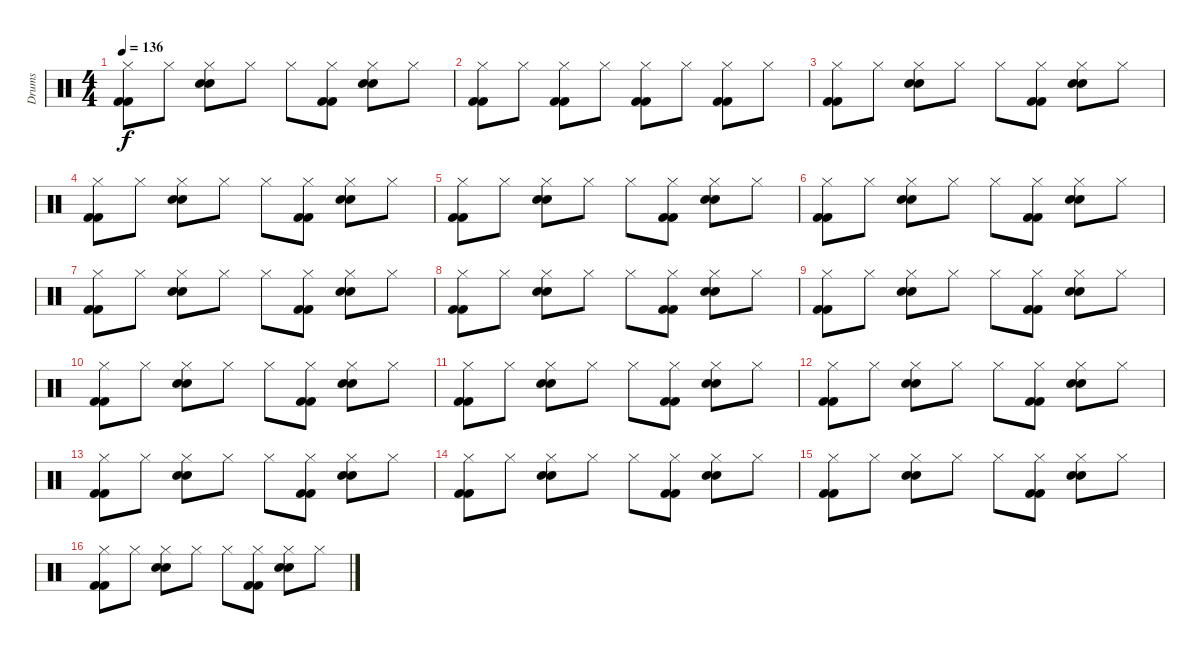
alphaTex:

\track ("Drums" "Drums") {instrument percussion}
\staff {score}
\articulation defaults
\ts (4 4)
\tempo 136
\clef neutral
\ks c
("Kick (hit) 2" "Kick (hit) 2" "Hi-Hat (closed)").8{dy f} "Hi-Hat (closed)".8 ("Electric Snare (hit)" "Electric Snare (hit)" "Hi-Hat (closed)").8 "Hi-Hat (closed)".8 "Hi-Hat (closed)".8 ("Kick (hit) 2" "Kick (hit) 2" "Hi-Hat (closed)").8 ("Electric Snare (hit)" "Electric Snare (hit)" "Hi-Hat (closed)").8 "Hi-Hat (closed)".8 |
("Kick (hit) 2" "Kick (hit) 2" "Hi-Hat (closed)").8 "Hi-Hat (closed)".8 ("Kick (hit) 2" "Kick (hit) 2" "Hi-Hat (closed)").8 "Hi-Hat (closed)".8 ("Kick (hit) 2" "Kick (hit) 2" "Hi-Hat (closed)").8 "Hi-Hat (closed)".8 ("Kick (hit) 2" "Kick (hit) 2" "Hi-Hat (closed)").8 "Hi-Hat (closed)".8 |
("Kick (hit) 2" "Kick (hit) 2" "Hi-Hat (closed)").8 "Hi-Hat (closed)".8 ("Electric Snare (hit)" "Electric Snare (hit)" "Hi-Hat (closed)").8 "Hi-Hat (closed)".8 "Hi-Hat (closed)".8 ("Kick (hit) 2" "Kick (hit) 2" "Hi-Hat (closed)").8 ("Electric Snare (hit)" "Electric Snare (hit)" "Hi-Hat (closed)").8 "Hi-Hat (closed)".8 |
("Kick (hit) 2" "Kick (hit) 2" "Hi-Hat (closed)").8 "Hi-Hat (closed)".8 ("Electric Snare (hit)" "Electric Snare (hit)" "Hi-Hat (closed)").8 "Hi-Hat (closed)".8 "Hi-Hat (closed)".8 ("Kick (hit) 2" "Kick (hit) 2" "Hi-Hat (closed)").8 ("Electric Snare (hit)" "Electric Snare (hit)" "Hi-Hat (closed)").8 "Hi-Hat (closed)".8 |
("Kick (hit) 2" "Kick (hit) 2" "Hi-Hat (closed)").8 "Hi-Hat (closed)".8 ("Electric Snare (hit)" "Electric Snare (hit)" "Hi-Hat (closed)").8 "Hi-Hat (closed)".8 "Hi-Hat (closed)".8 ("Kick (hit) 2" "Kick (hit) 2" "Hi-Hat (closed)").8 ("Electric Snare (hit)" "Electric Snare (hit)" "Hi-Hat (closed)").8 "Hi-Hat (closed)".8 |
("Kick (hit) 2" "Kick (hit) 2" "Hi-Hat (closed)").8 "Hi-Hat (closed)".8 ("Electric Snare (hit)" "Electric Snare (hit)" "Hi-Hat (closed)").8 "Hi-Hat (closed)".8 "Hi-Hat (closed)".8 ("Kick (hit) 2" "Kick (hit) 2" "Hi-Hat (closed)").8 ("Electric Snare (hit)" "Electric Snare (hit)" "Hi-Hat (closed)").8 "Hi-Hat (closed)".8 |
("Kick (hit) 2" "Kick (hit) 2" "Hi-Hat (closed)").8 "Hi-Hat (closed)".8 ("Electric Snare (hit)" "Electric Snare (hit)" "Hi-Hat (closed)").8 "Hi-Hat (closed)".8 "Hi-Hat (closed)".8 ("Kick (hit) 2" "Kick (hit) 2" "Hi-Hat (closed)").8 ("Electric Snare (hit)" "Electric Snare (hit)" "Hi-Hat (closed)").8 "Hi-Hat (closed)".8 |
("Kick (hit) 2" "Kick (hit) 2" "Hi-Hat (closed)").8 "Hi-Hat (closed)".8 ("Electric Snare (hit)" "Electric Snare (hit)" "Hi-Hat (closed)").8 "Hi-Hat (closed)".8 "Hi-Hat (closed)".8 ("Kick (hit) 2" "Kick (hit) 2" "Hi-Hat (closed)").8 ("Electric Snare (hit)" "Electric Snare (hit)" "Hi-Hat (closed)").8 "Hi-Hat (closed)".8 |
("Kick (hit) 2" "Kick (hit) 2" "Hi-Hat (closed)").8 "Hi-Hat (closed)".8 ("Electric Snare (hit)" "Electric Snare (hit)" "Hi-Hat (closed)").8 "Hi-Hat (closed)".8 "Hi-Hat (closed)".8 ("Kick (hit) 2" "Kick (hit) 2" "Hi-Hat (closed)").8 ("Electric Snare (hit)" "Electric Snare (hit)" "Hi-Hat (closed)").8 "Hi-Hat (closed)".8 |
("Kick (hit) 2" "Kick (hit) 2" "Hi-Hat (closed)").8 "Hi-Hat (closed)".8 ("Electric Snare (hit)" "Electric Snare (hit)" "Hi-Hat (closed)").8 "Hi-Hat (closed)".8 "Hi-Hat (closed)".8 ("Kick (hit) 2" "Kick (hit) 2" "Hi-Hat (closed)").8 ("Electric Snare (hit)" "Electric Snare (hit)" "Hi-Hat (closed)").8 "Hi-Hat (closed)".8 |
("Kick (hit) 2" "Kick (hit) 2" "Hi-Hat (closed)").8 "Hi-Hat (closed)".8 ("Electric Snare (hit)" "Electric Snare (hit)" "Hi-Hat (closed)").8 "Hi-Hat (closed)".8 "Hi-Hat (closed)".8 ("Kick (hit) 2" "Kick (hit) 2" "Hi-Hat (closed)").8 ("Electric Snare (hit)" "Electric Snare (hit)" "Hi-Hat (closed)").8 "Hi-Hat (closed)".8 |
("Kick (hit) 2" "Kick (hit) 2" "Hi-Hat (closed)").8 "Hi-Hat (closed)".8 ("Electric Snare (hit)" "Electric Snare (hit)" "Hi-Hat (closed)").8 "Hi-Hat (closed)".8 "Hi-Hat (closed)".8 ("Kick (hit) 2" "Kick (hit) 2" "Hi-Hat (closed)").8 ("Electric Snare (hit)" "Electric Snare (hit)" "Hi-Hat (closed)").8 "Hi-Hat (closed)".8 |
("Kick (hit) 2" "Kick (hit) 2" "Hi-Hat (closed)").8 "Hi-Hat (closed)".8 ("Electric Snare (hit)" "Electric Snare (hit)" "Hi-Hat (closed)").8 "Hi-Hat (closed)".8 "Hi-Hat (closed)".8 ("Kick (hit) 2" "Kick (hit) 2" "Hi-Hat (closed)").8 ("Electric Snare (hit)" "Electric Snare (hit)" "Hi-Hat (closed)").8 "Hi-Hat (closed)".8 |
("Kick (hit) 2" "Kick (hit) 2" "Hi-Hat (closed)").8 "Hi-Hat (closed)".8 ("Electric Snare (hit)" "Electric Snare (hit)" "Hi-Hat (closed)").8 "Hi-Hat (closed)".8 "Hi-Hat (closed)".8 ("Kick (hit) 2" "Kick (hit) 2" "Hi-Hat (closed)").8 ("Electric Snare (hit)" "Electric Snare (hit)" "Hi-Hat (closed)").8 "Hi-Hat (closed)".8 |
("Kick (hit) 2" "Kick (hit) 2" "Hi-Hat (closed)").8 "Hi-Hat (closed)".8 ("Electric Snare (hit)" "Electric Snare (hit)" "Hi-Hat (closed)").8 "Hi-Hat (closed)".8 "Hi-Hat (closed)".8 ("Kick (hit) 2" "Kick (hit) 2" "Hi-Hat (closed)").8 ("Electric Snare (hit)" "Electric Snare (hit)" "Hi-Hat (closed)").8 "Hi-Hat (closed)".8 |
("Kick (hit) 2" "Kick (hit) 2" "Hi-Hat (closed)").8 "Hi-Hat (closed)".8 ("Electric Snare (hit)" "Electric Snare (hit)" "Hi-Hat (closed)").8 "Hi-Hat (closed)".8 "Hi-Hat (closed)".8 ("Kick (hit) 2" "Kick (hit) 2" "Hi-Hat (closed)").8 ("Electric Snare (hit)" "Electric Snare (hit)" "Hi-Hat (closed)").8 "Hi-Hat (closed)".8
